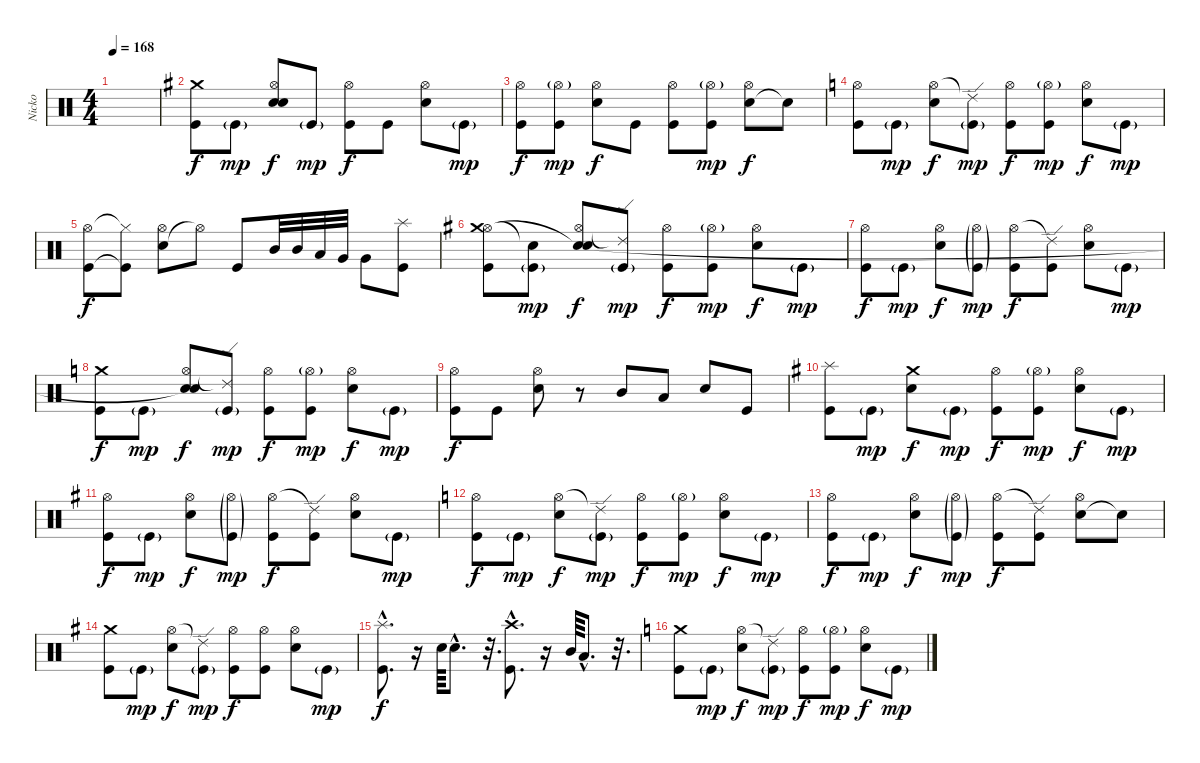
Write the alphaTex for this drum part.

\track ("Nicko" "Nicko") {instrument percussion}
\staff {score}
\articulation defaults
\ts (4 4)
\tempo 168
\clef neutral
\ks c
|
\ks g
("Kick (hit)" "Crash medium (hit)").8 "Kick (hit)"{g}.8{dy mp} ("Electric Snare (hit)" "Hi-Hat (open)" "Snare (hit)").8{dy f} "Kick (hit)"{g}.8{dy mp} ("Kick (hit)" "Hi-Hat (open)").8{dy f} "Kick (hit)".8 ("Electric Snare (hit)" "Hi-Hat (open)").8 "Kick (hit)"{g}.8{dy mp} |
("Kick (hit)" "Hi-Hat (open)").8{dy f} ("Kick (hit)" "Hi-Hat (open)"{g}).8{dy mp} ("Electric Snare (hit)" "Hi-Hat (open)").8{dy f} "Kick (hit)".8 ("Kick (hit)" "Hi-Hat (open)").8 ("Kick (hit)" "Hi-Hat (open)"{g}).8{dy mp} ("Electric Snare (hit)" "Hi-Hat (open)").8{dy f} "Snare (hit)"{t}.8 |
\ks c
("Kick (hit)" "Hi-Hat (open)").8 "Kick (hit)"{g}.8{dy mp} ("Electric Snare (hit)" "Hi-Hat (open)").8{dy f} ("Kick (hit)"{g} "Ride (edge) 2"{t}).8{dy mp} ("Kick (hit)" "Hi-Hat (open)").8{dy f} ("Kick (hit)" "Hi-Hat (open)"{g}).8{dy mp} ("Electric Snare (hit)" "Hi-Hat (open)").8{dy f} "Kick (hit)"{g}.8{dy mp} |
("Kick (hit)" "Hi-Hat (open)").8{dy f} ("Kick (hit)"{t} "Hi-Hat (closed)"{t}).8 ("Electric Snare (hit)" "Hi-Hat (open)").8 "Hi-Hat (open)"{t}.8 "Kick (hit)".8 "Mid Tom (hit)".32{volume 7} "Mid Tom (hit)".32{volume 9} "Low Tom (hit)".32{volume 11} "Very Low Tom (hit)".32{volume 12} "Very Low Tom (hit)".8{volume 13} ("Kick (hit)" "Splash (hit)").8 |
\ks g
("Kick (hit)" "Hi-Hat (open)" "Crash medium (hit)").8 ("Kick (hit)"{g} "Snare (hit)"{t}).8{dy mp} ("Electric Snare (hit)" "Hi-Hat (open)" "Snare (hit)"{t}).8{dy f} ("Kick (hit)"{g} "Ride (edge) 2"{t}).8{dy mp} ("Kick (hit)" "Hi-Hat (open)").8{dy f} ("Kick (hit)" "Hi-Hat (open)"{g}).8{dy mp} ("Electric Snare (hit)" "Hi-Hat (open)").8{dy f} "Kick (hit)"{g}.8{dy mp} |
("Kick (hit)" "Hi-Hat (open)").8{dy f} "Kick (hit)"{g}.8{dy mp} ("Electric Snare (hit)" "Hi-Hat (open)").8{dy f} ("Kick (hit)"{g} "Hi-Hat (open)"{g}).8{dy mp} ("Kick (hit)" "Hi-Hat (open)").8{dy f} ("Kick (hit)" "Ride (edge) 2"{t}).8 ("Electric Snare (hit)" "Hi-Hat (open)").8 "Kick (hit)"{g}.8{dy mp} |
\ks c
("Kick (hit)" "Crash medium (hit)").8{dy f} "Kick (hit)"{g}.8{dy mp} ("Electric Snare (hit)" "Hi-Hat (open)" "Snare (hit)"{t}).8{dy f} ("Kick (hit)"{g} "Ride (edge) 2"{t}).8{dy mp} ("Kick (hit)" "Hi-Hat (open)").8{dy f} ("Kick (hit)" "Hi-Hat (open)"{g}).8{dy mp} ("Electric Snare (hit)" "Hi-Hat (open)").8{dy f} "Kick (hit)"{g}.8{dy mp} |
("Kick (hit)" "Hi-Hat (open)").8{dy f} "Kick (hit)".8 ("Electric Snare (hit)" "Hi-Hat (open)").8 r.8 "Mid Tom (hit)".8 "Low Tom (hit)".8 "Electric Snare (hit)".8 "Kick (hit)".8 |
\ks g
("Kick (hit)" "Splash (hit)").8 "Kick (hit)"{g}.8{dy mp} ("Electric Snare (hit)" "Crash medium (hit)").8{dy f} "Kick (hit)"{g}.8{dy mp} ("Kick (hit)" "Hi-Hat (open)").8{dy f} ("Kick (hit)" "Hi-Hat (open)"{g}).8{dy mp} ("Electric Snare (hit)" "Hi-Hat (open)").8{dy f} "Kick (hit)"{g}.8{dy mp} |
("Kick (hit)" "Hi-Hat (open)").8{dy f} "Kick (hit)"{g}.8{dy mp} ("Electric Snare (hit)" "Hi-Hat (open)").8{dy f} ("Kick (hit)"{g} "Hi-Hat (open)"{g}).8{dy mp} ("Kick (hit)" "Hi-Hat (open)").8{dy f} ("Kick (hit)" "Ride (edge) 2"{t}).8 ("Electric Snare (hit)" "Hi-Hat (open)").8 "Kick (hit)"{g}.8{dy mp} |
\ks c
("Kick (hit)" "Hi-Hat (open)").8{dy f} "Kick (hit)"{g}.8{dy mp} ("Electric Snare (hit)" "Hi-Hat (open)").8{dy f} ("Kick (hit)"{g} "Ride (edge) 2"{t}).8{dy mp} ("Kick (hit)" "Hi-Hat (open)").8{dy f} ("Kick (hit)" "Hi-Hat (open)"{g}).8{dy mp} ("Electric Snare (hit)" "Hi-Hat (open)").8{dy f} "Kick (hit)"{g}.8{dy mp} |
("Kick (hit)" "Hi-Hat (open)").8{dy f} "Kick (hit)"{g}.8{dy mp} ("Electric Snare (hit)" "Hi-Hat (open)").8{dy f} ("Kick (hit)"{g} "Hi-Hat (open)"{g}).8{dy mp} ("Kick (hit)" "Hi-Hat (open)").8{dy f} ("Kick (hit)" "Ride (edge) 2"{t}).8 ("Electric Snare (hit)" "Hi-Hat (open)").8 "Snare (hit)"{t}.8 |
\ks g
("Kick (hit)" "Crash medium (hit)").8 "Kick (hit)"{g}.8{dy mp} ("Electric Snare (hit)" "Hi-Hat (open)").8{dy f} ("Kick (hit)"{g} "Ride (edge) 2"{t}).8{dy mp} ("Kick (hit)" "Hi-Hat (open)").8{dy f} ("Kick (hit)" "Hi-Hat (open)").8 ("Electric Snare (hit)" "Hi-Hat (open)").8 "Kick (hit)"{g}.8{dy mp} |
("Kick (hit)"{hac} "Splash (hit)"{hac}).8{d dy f} r.16 "Electric Snare (hit)".64 "Electric Snare (hit)"{hac}.8{d} r.32{d} ("Kick (hit)"{hac} "Crash high (hit)"{hac}).8{d} r.16 "Mid Tom (hit)".64 "Low Tom (hit)"{hac}.8{d} r.32{d} |
\ks c
("Kick (hit)" "Crash medium (hit)").8 "Kick (hit)"{g}.8{dy mp} ("Electric Snare (hit)" "Hi-Hat (open)").8{dy f} ("Kick (hit)"{g} "Ride (edge) 2"{t}).8{dy mp} ("Kick (hit)" "Hi-Hat (open)").8{dy f} ("Kick (hit)" "Hi-Hat (open)"{g}).8{dy mp} ("Electric Snare (hit)" "Hi-Hat (open)").8{dy f} "Kick (hit)"{g}.8{dy mp}
